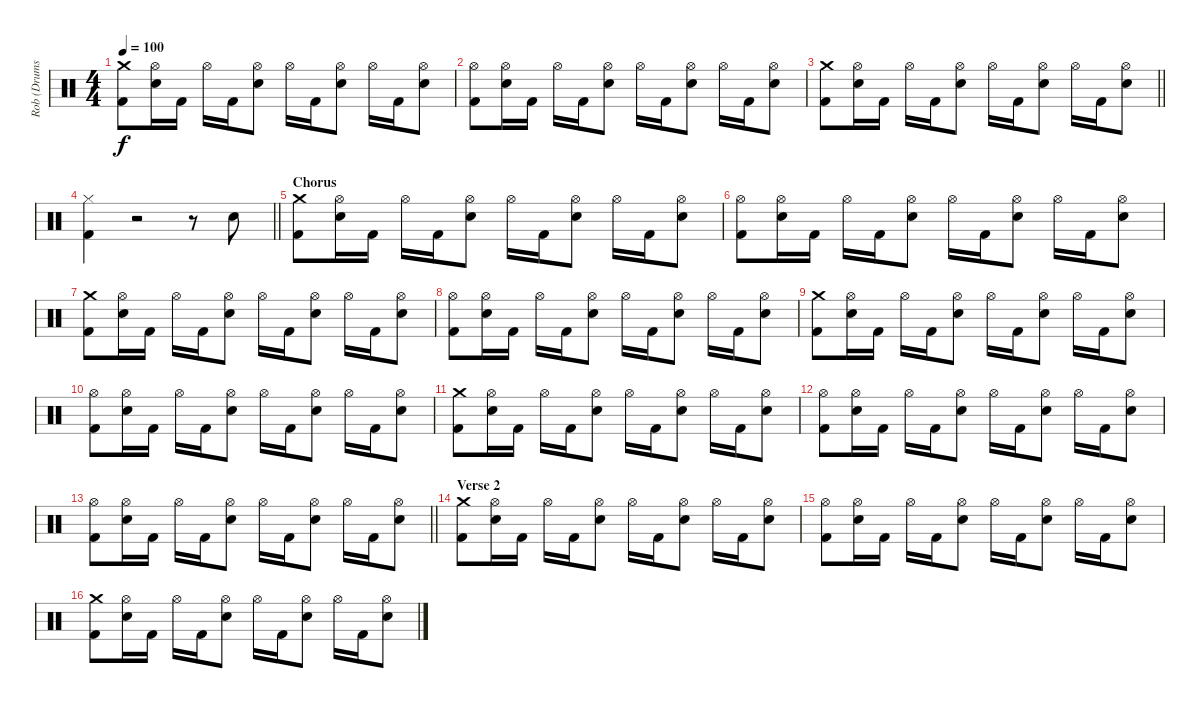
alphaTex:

\track ("Rob (Drums)" "Rob (Drums") {instrument percussion}
\staff {score}
\articulation defaults
\ts (4 4)
\tempo 100
\clef neutral
\ks c
("Crash medium (hit)" "Kick (hit) 2").8{dy f} ("Hi-Hat (open)" "Electric Snare (hit)").16 "Kick (hit) 2".16 "Hi-Hat (open)".16 "Kick (hit) 2".16 ("Hi-Hat (open)" "Electric Snare (hit)").8 "Hi-Hat (open)".16 "Kick (hit) 2".16 ("Hi-Hat (open)" "Electric Snare (hit)").8 "Hi-Hat (open)".16 "Kick (hit) 2".16 ("Hi-Hat (open)" "Electric Snare (hit)").8 |
("Hi-Hat (open)" "Kick (hit) 2").8 ("Hi-Hat (open)" "Electric Snare (hit)").16 "Kick (hit) 2".16 "Hi-Hat (open)".16 "Kick (hit) 2".16 ("Hi-Hat (open)" "Electric Snare (hit)").8 "Hi-Hat (open)".16 "Kick (hit) 2".16 ("Hi-Hat (open)" "Electric Snare (hit)").8 "Hi-Hat (open)".16 "Kick (hit) 2".16 ("Hi-Hat (open)" "Electric Snare (hit)").8 |
\barLineRight lightlight
("Crash medium (hit)" "Kick (hit) 2").8 ("Hi-Hat (open)" "Electric Snare (hit)").16 "Kick (hit) 2".16 "Hi-Hat (open)".16 "Kick (hit) 2".16 ("Hi-Hat (open)" "Electric Snare (hit)").8 "Hi-Hat (open)".16 "Kick (hit) 2".16 ("Hi-Hat (open)" "Electric Snare (hit)").8 "Hi-Hat (open)".16 "Kick (hit) 2".16 ("Hi-Hat (open)" "Electric Snare (hit)").8 |
\barLineRight lightlight
("Hi-Hat (closed)" "Kick (hit) 2").4 r.2 r.8 "Electric Snare (hit)".8 |
\section ("" "Chorus")
("Crash medium (hit)" "Kick (hit) 2").8 ("Hi-Hat (open)" "Electric Snare (hit)").16 "Kick (hit) 2".16 "Hi-Hat (open)".16 "Kick (hit) 2".16 ("Hi-Hat (open)" "Electric Snare (hit)").8 "Hi-Hat (open)".16 "Kick (hit) 2".16 ("Hi-Hat (open)" "Electric Snare (hit)").8 "Hi-Hat (open)".16 "Kick (hit) 2".16 ("Hi-Hat (open)" "Electric Snare (hit)").8 |
("Hi-Hat (open)" "Kick (hit) 2").8 ("Hi-Hat (open)" "Electric Snare (hit)").16 "Kick (hit) 2".16 "Hi-Hat (open)".16 "Kick (hit) 2".16 ("Hi-Hat (open)" "Electric Snare (hit)").8 "Hi-Hat (open)".16 "Kick (hit) 2".16 ("Hi-Hat (open)" "Electric Snare (hit)").8 "Hi-Hat (open)".16 "Kick (hit) 2".16 ("Hi-Hat (open)" "Electric Snare (hit)").8 |
("Crash medium (hit)" "Kick (hit) 2").8 ("Hi-Hat (open)" "Electric Snare (hit)").16 "Kick (hit) 2".16 "Hi-Hat (open)".16 "Kick (hit) 2".16 ("Hi-Hat (open)" "Electric Snare (hit)").8 "Hi-Hat (open)".16 "Kick (hit) 2".16 ("Hi-Hat (open)" "Electric Snare (hit)").8 "Hi-Hat (open)".16 "Kick (hit) 2".16 ("Hi-Hat (open)" "Electric Snare (hit)").8 |
("Hi-Hat (open)" "Kick (hit) 2").8 ("Hi-Hat (open)" "Electric Snare (hit)").16 "Kick (hit) 2".16 "Hi-Hat (open)".16 "Kick (hit) 2".16 ("Hi-Hat (open)" "Electric Snare (hit)").8 "Hi-Hat (open)".16 "Kick (hit) 2".16 ("Hi-Hat (open)" "Electric Snare (hit)").8 "Hi-Hat (open)".16 "Kick (hit) 2".16 ("Hi-Hat (open)" "Electric Snare (hit)").8 |
("Crash medium (hit)" "Kick (hit) 2").8 ("Hi-Hat (open)" "Electric Snare (hit)").16 "Kick (hit) 2".16 "Hi-Hat (open)".16 "Kick (hit) 2".16 ("Hi-Hat (open)" "Electric Snare (hit)").8 "Hi-Hat (open)".16 "Kick (hit) 2".16 ("Hi-Hat (open)" "Electric Snare (hit)").8 "Hi-Hat (open)".16 "Kick (hit) 2".16 ("Hi-Hat (open)" "Electric Snare (hit)").8 |
("Hi-Hat (open)" "Kick (hit) 2").8 ("Hi-Hat (open)" "Electric Snare (hit)").16 "Kick (hit) 2".16 "Hi-Hat (open)".16 "Kick (hit) 2".16 ("Hi-Hat (open)" "Electric Snare (hit)").8 "Hi-Hat (open)".16 "Kick (hit) 2".16 ("Hi-Hat (open)" "Electric Snare (hit)").8 "Hi-Hat (open)".16 "Kick (hit) 2".16 ("Hi-Hat (open)" "Electric Snare (hit)").8 |
("Crash medium (hit)" "Kick (hit) 2").8 ("Hi-Hat (open)" "Electric Snare (hit)").16 "Kick (hit) 2".16 "Hi-Hat (open)".16 "Kick (hit) 2".16 ("Hi-Hat (open)" "Electric Snare (hit)").8 "Hi-Hat (open)".16 "Kick (hit) 2".16 ("Hi-Hat (open)" "Electric Snare (hit)").8 "Hi-Hat (open)".16 "Kick (hit) 2".16 ("Hi-Hat (open)" "Electric Snare (hit)").8 |
("Hi-Hat (open)" "Kick (hit) 2").8 ("Hi-Hat (open)" "Electric Snare (hit)").16 "Kick (hit) 2".16 "Hi-Hat (open)".16 "Kick (hit) 2".16 ("Hi-Hat (open)" "Electric Snare (hit)").8 "Hi-Hat (open)".16 "Kick (hit) 2".16 ("Hi-Hat (open)" "Electric Snare (hit)").8 "Hi-Hat (open)".16 "Kick (hit) 2".16 ("Hi-Hat (open)" "Electric Snare (hit)").8 |
\barLineRight lightlight
("Hi-Hat (open)" "Kick (hit) 2").8 ("Hi-Hat (open)" "Electric Snare (hit)").16 "Kick (hit) 2".16 "Hi-Hat (open)".16 "Kick (hit) 2".16 ("Hi-Hat (open)" "Electric Snare (hit)").8 "Hi-Hat (open)".16 "Kick (hit) 2".16 ("Hi-Hat (open)" "Electric Snare (hit)").8 "Hi-Hat (open)".16 "Kick (hit) 2".16 ("Hi-Hat (open)" "Electric Snare (hit)").8 |
\section ("" "Verse 2")
("Crash medium (hit)" "Kick (hit) 2").8 ("Hi-Hat (open)" "Electric Snare (hit)").16 "Kick (hit) 2".16 "Hi-Hat (open)".16 "Kick (hit) 2".16 ("Hi-Hat (open)" "Electric Snare (hit)").8 "Hi-Hat (open)".16 "Kick (hit) 2".16 ("Hi-Hat (open)" "Electric Snare (hit)").8 "Hi-Hat (open)".16 "Kick (hit) 2".16 ("Hi-Hat (open)" "Electric Snare (hit)").8 |
("Hi-Hat (open)" "Kick (hit) 2").8 ("Hi-Hat (open)" "Electric Snare (hit)").16 "Kick (hit) 2".16 "Hi-Hat (open)".16 "Kick (hit) 2".16 ("Hi-Hat (open)" "Electric Snare (hit)").8 "Hi-Hat (open)".16 "Kick (hit) 2".16 ("Hi-Hat (open)" "Electric Snare (hit)").8 "Hi-Hat (open)".16 "Kick (hit) 2".16 ("Hi-Hat (open)" "Electric Snare (hit)").8 |
("Crash medium (hit)" "Kick (hit) 2").8 ("Hi-Hat (open)" "Electric Snare (hit)").16 "Kick (hit) 2".16 "Hi-Hat (open)".16 "Kick (hit) 2".16 ("Hi-Hat (open)" "Electric Snare (hit)").8 "Hi-Hat (open)".16 "Kick (hit) 2".16 ("Hi-Hat (open)" "Electric Snare (hit)").8 "Hi-Hat (open)".16 "Kick (hit) 2".16 ("Hi-Hat (open)" "Electric Snare (hit)").8
